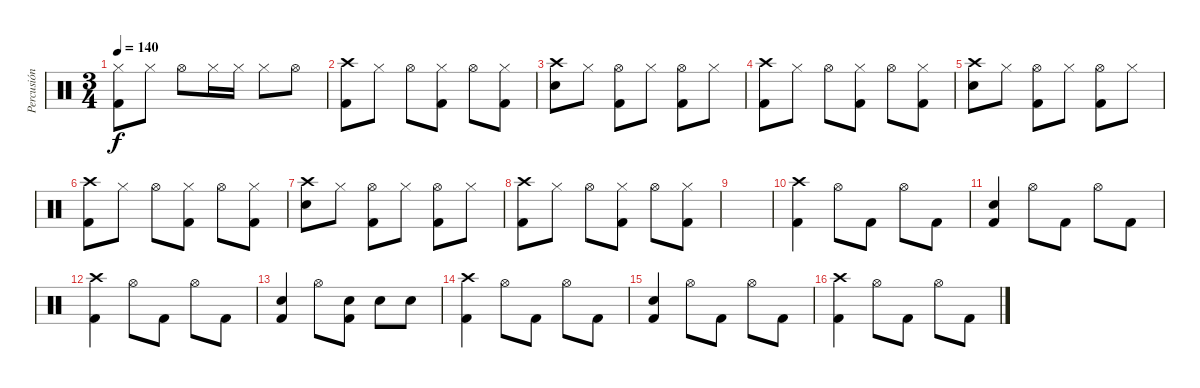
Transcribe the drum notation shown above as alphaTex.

\track ("Percusión" "Percusión") {instrument percussion}
\staff {score}
\articulation defaults
\ts (3 4)
\tempo 140
\clef neutral
\ks c
("Hi-Hat (closed)" "Kick (hit) 2").8{dy f} "Hi-Hat (closed)".8 "Hi-Hat (open)".8 "Hi-Hat (closed)".16 "Hi-Hat (closed)".16 "Hi-Hat (closed)".8 "Hi-Hat (open)".8 |
("Crash high (hit)" "Kick (hit) 2").8 "Hi-Hat (closed)".8 "Hi-Hat (open)".8 ("Hi-Hat (closed)" "Kick (hit) 2").8 "Hi-Hat (open)".8 ("Hi-Hat (closed)" "Kick (hit) 2").8 |
("Crash high (hit)" "Electric Snare (hit)").8 "Hi-Hat (closed)".8 ("Hi-Hat (open)" "Kick (hit) 2").8 "Hi-Hat (closed)".8 ("Hi-Hat (open)" "Kick (hit) 2").8 "Hi-Hat (closed)".8 |
("Crash high (hit)" "Kick (hit) 2").8 "Hi-Hat (closed)".8 "Hi-Hat (open)".8 ("Hi-Hat (closed)" "Kick (hit) 2").8 "Hi-Hat (open)".8 ("Hi-Hat (closed)" "Kick (hit) 2").8 |
("Crash high (hit)" "Electric Snare (hit)").8 "Hi-Hat (closed)".8 ("Hi-Hat (open)" "Kick (hit) 2").8 "Hi-Hat (closed)".8 ("Hi-Hat (open)" "Kick (hit) 2").8 "Hi-Hat (closed)".8 |
("Crash high (hit)" "Kick (hit) 2").8 "Hi-Hat (closed)".8 "Hi-Hat (open)".8 ("Hi-Hat (closed)" "Kick (hit) 2").8 "Hi-Hat (open)".8 ("Hi-Hat (closed)" "Kick (hit) 2").8 |
("Crash high (hit)" "Electric Snare (hit)").8 "Hi-Hat (closed)".8 ("Hi-Hat (open)" "Kick (hit) 2").8 "Hi-Hat (closed)".8 ("Hi-Hat (open)" "Kick (hit) 2").8 "Hi-Hat (closed)".8 |
("Crash high (hit)" "Kick (hit) 2").8 "Hi-Hat (closed)".8 "Hi-Hat (open)".8 ("Hi-Hat (closed)" "Kick (hit) 2").8 "Hi-Hat (open)".8 ("Hi-Hat (closed)" "Kick (hit) 2").8 |
|
("Crash high (hit)" "Kick (hit) 2").4 "Hi-Hat (open)".8 "Kick (hit) 2".8 "Hi-Hat (open)".8 "Kick (hit) 2".8 |
("Electric Snare (hit)" "Kick (hit) 2").4 "Hi-Hat (open)".8 "Kick (hit) 2".8 "Hi-Hat (open)".8 "Kick (hit) 2".8 |
("Crash high (hit)" "Kick (hit) 2").4 "Hi-Hat (open)".8 "Kick (hit) 2".8 "Hi-Hat (open)".8 "Kick (hit) 2".8 |
("Electric Snare (hit)" "Kick (hit) 2").4 "Hi-Hat (open)".8 ("Electric Snare (hit)" "Kick (hit) 2").8 "Electric Snare (hit)".8 "Electric Snare (hit)".8 |
("Crash high (hit)" "Kick (hit) 2").4 "Hi-Hat (open)".8 "Kick (hit) 2".8 "Hi-Hat (open)".8 "Kick (hit) 2".8 |
("Electric Snare (hit)" "Kick (hit) 2").4 "Hi-Hat (open)".8 "Kick (hit) 2".8 "Hi-Hat (open)".8 "Kick (hit) 2".8 |
("Crash high (hit)" "Kick (hit) 2").4 "Hi-Hat (open)".8 "Kick (hit) 2".8 "Hi-Hat (open)".8 "Kick (hit) 2".8
